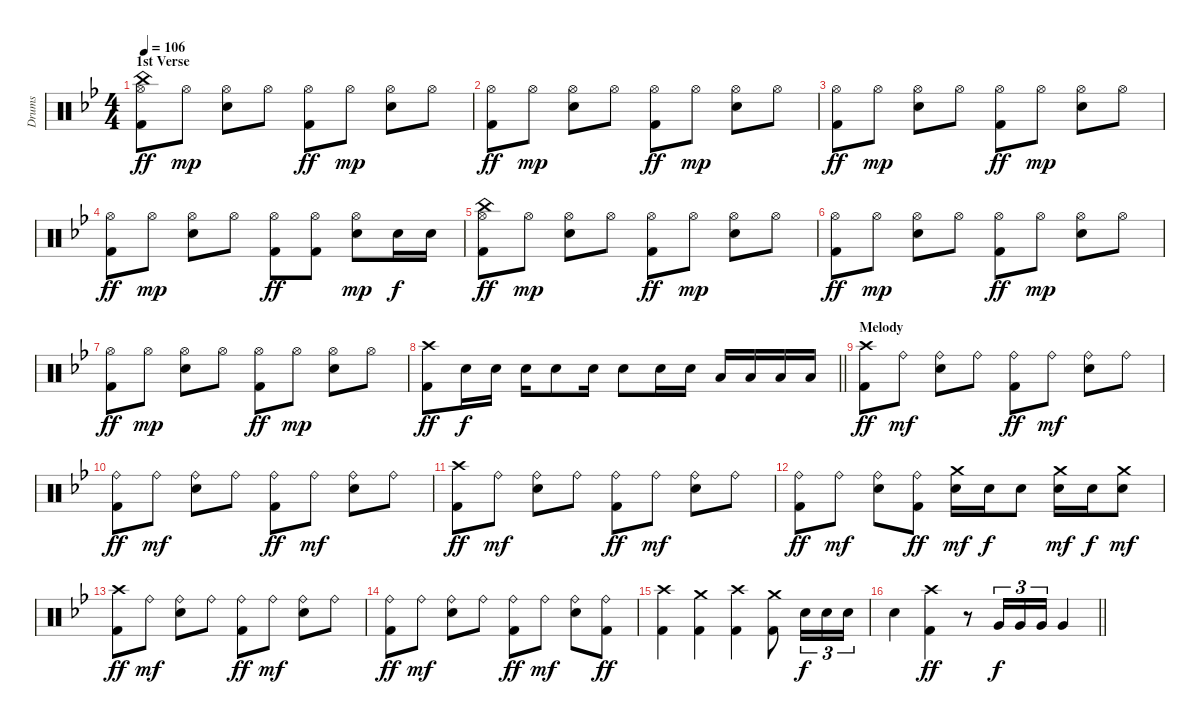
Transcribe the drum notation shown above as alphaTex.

\track ("Drums" "Drums") {instrument percussion}
\staff {score}
\articulation defaults
\ts (4 4)
\section ("" "1st Verse")
\tempo 106
\clef neutral
\ks bb
("China (hit)" "Hi-Hat (open)" "Kick (hit) 2").8{dy ff} "Hi-Hat (open)".8{dy mp} ("Hi-Hat (open)" "Electric Snare (hit)").8 "Hi-Hat (open)".8 ("Hi-Hat (open)" "Kick (hit) 2").8{dy ff} "Hi-Hat (open)".8{dy mp} ("Hi-Hat (open)" "Electric Snare (hit)").8 "Hi-Hat (open)".8 |
("Hi-Hat (open)" "Kick (hit) 2").8{dy ff} "Hi-Hat (open)".8{dy mp} ("Hi-Hat (open)" "Electric Snare (hit)").8 "Hi-Hat (open)".8 ("Hi-Hat (open)" "Kick (hit) 2").8{dy ff} "Hi-Hat (open)".8{dy mp} ("Hi-Hat (open)" "Electric Snare (hit)").8 "Hi-Hat (open)".8 |
("Hi-Hat (open)" "Kick (hit) 2").8{dy ff} "Hi-Hat (open)".8{dy mp} ("Hi-Hat (open)" "Electric Snare (hit)").8 "Hi-Hat (open)".8 ("Hi-Hat (open)" "Kick (hit) 2").8{dy ff} "Hi-Hat (open)".8{dy mp} ("Hi-Hat (open)" "Electric Snare (hit)").8 "Hi-Hat (open)".8 |
("Hi-Hat (open)" "Kick (hit) 2").8{dy ff} "Hi-Hat (open)".8{dy mp} ("Hi-Hat (open)" "Electric Snare (hit)").8 "Hi-Hat (open)".8 ("Hi-Hat (open)" "Kick (hit) 2").8{dy ff} ("Hi-Hat (open)" "Kick (hit) 2").8 ("Hi-Hat (open)" "Electric Snare (hit)").8{dy mp} "Electric Snare (hit)".16{dy f} "Electric Snare (hit)".16 |
("China (hit)" "Hi-Hat (open)" "Kick (hit) 2").8{dy ff} "Hi-Hat (open)".8{dy mp} ("Hi-Hat (open)" "Electric Snare (hit)").8 "Hi-Hat (open)".8 ("Hi-Hat (open)" "Kick (hit) 2").8{dy ff} "Hi-Hat (open)".8{dy mp} ("Hi-Hat (open)" "Electric Snare (hit)").8 "Hi-Hat (open)".8 |
("Hi-Hat (open)" "Kick (hit) 2").8{dy ff} "Hi-Hat (open)".8{dy mp} ("Hi-Hat (open)" "Electric Snare (hit)").8 "Hi-Hat (open)".8 ("Hi-Hat (open)" "Kick (hit) 2").8{dy ff} "Hi-Hat (open)".8{dy mp} ("Hi-Hat (open)" "Electric Snare (hit)").8 "Hi-Hat (open)".8 |
("Hi-Hat (open)" "Kick (hit) 2").8{dy ff} "Hi-Hat (open)".8{dy mp} ("Hi-Hat (open)" "Electric Snare (hit)").8 "Hi-Hat (open)".8 ("Hi-Hat (open)" "Kick (hit) 2").8{dy ff} "Hi-Hat (open)".8{dy mp} ("Hi-Hat (open)" "Electric Snare (hit)").8 "Hi-Hat (open)".8 |
\barLineRight lightlight
("Crash high (hit)" "Kick (hit) 2").8{dy ff} "Electric Snare (hit)".16{dy f} "Electric Snare (hit)".16 "Electric Snare (hit)".16 "Electric Snare (hit)".8 "Electric Snare (hit)".16 "Electric Snare (hit)".8 "Electric Snare (hit)".16 "Electric Snare (hit)".16 "Low Tom (hit)".16 "Low Tom (hit)".16 "Low Tom (hit)".16 "Low Tom (hit)".16 |
\section ("" "Melody")
("Crash high (hit)" "Kick (hit) 2").8{dy ff} "Ride (bell)".8{dy mf} ("Ride (bell)" "Electric Snare (hit)").8 "Ride (bell)".8 ("Ride (bell)" "Kick (hit) 2").8{dy ff} "Ride (bell)".8{dy mf} ("Ride (bell)" "Electric Snare (hit)").8 "Ride (bell)".8 |
("Ride (bell)" "Kick (hit) 2").8{dy ff} "Ride (bell)".8{dy mf} ("Ride (bell)" "Electric Snare (hit)").8 "Ride (bell)".8 ("Ride (bell)" "Kick (hit) 2").8{dy ff} "Ride (bell)".8{dy mf} ("Ride (bell)" "Electric Snare (hit)").8 "Ride (bell)".8 |
("Crash high (hit)" "Kick (hit) 2").8{dy ff} "Ride (bell)".8{dy mf} ("Ride (bell)" "Electric Snare (hit)").8 "Ride (bell)".8 ("Ride (bell)" "Kick (hit) 2").8{dy ff} "Ride (bell)".8{dy mf} ("Ride (bell)" "Electric Snare (hit)").8 "Ride (bell)".8 |
("Ride (bell)" "Kick (hit) 2").8{dy ff} "Ride (bell)".8{dy mf} ("Ride (bell)" "Electric Snare (hit)").8 ("Ride (bell)" "Kick (hit) 2").8{dy ff} ("Crash medium (hit)" "Electric Snare (hit)").16{dy mf} "Electric Snare (hit)".16{dy f} "Electric Snare (hit)".8 ("Crash medium (hit)" "Electric Snare (hit)").16{dy mf} "Electric Snare (hit)".16{dy f} ("Crash medium (hit)" "Electric Snare (hit)").8{dy mf} |
("Crash high (hit)" "Kick (hit) 2").8{dy ff} "Ride (bell)".8{dy mf} ("Ride (bell)" "Electric Snare (hit)").8 "Ride (bell)".8 ("Ride (bell)" "Kick (hit) 2").8{dy ff} "Ride (bell)".8{dy mf} ("Ride (bell)" "Electric Snare (hit)").8 "Ride (bell)".8 |
("Ride (bell)" "Kick (hit) 2").8{dy ff} "Ride (bell)".8{dy mf} ("Ride (bell)" "Electric Snare (hit)").8 "Ride (bell)".8 ("Ride (bell)" "Kick (hit) 2").8{dy ff} "Ride (bell)".8{dy mf} ("Ride (bell)" "Electric Snare (hit)").8 ("Ride (bell)" "Kick (hit) 2").8{dy ff} |
("Crash high (hit)" "Kick (hit) 2").4 ("Crash medium (hit)" "Kick (hit) 2").4 ("Crash high (hit)" "Kick (hit) 2").4 ("Crash medium (hit)" "Kick (hit) 2").8 "Electric Snare (hit)".16{tu (3 2) dy f} "Electric Snare (hit)".16{tu (3 2)} "Electric Snare (hit)".16{tu (3 2)} |
\barLineRight lightlight "Electric Snare (hit)".4
("Crash high (hit)" "Kick (hit) 2").4{dy ff} r.8 "Very Low Tom (hit)".16{tu (3 2) dy f} "Very Low Tom (hit)".16{tu (3 2)} "Very Low Tom (hit)".16{tu (3 2)} "Very Low Tom (hit)".4
